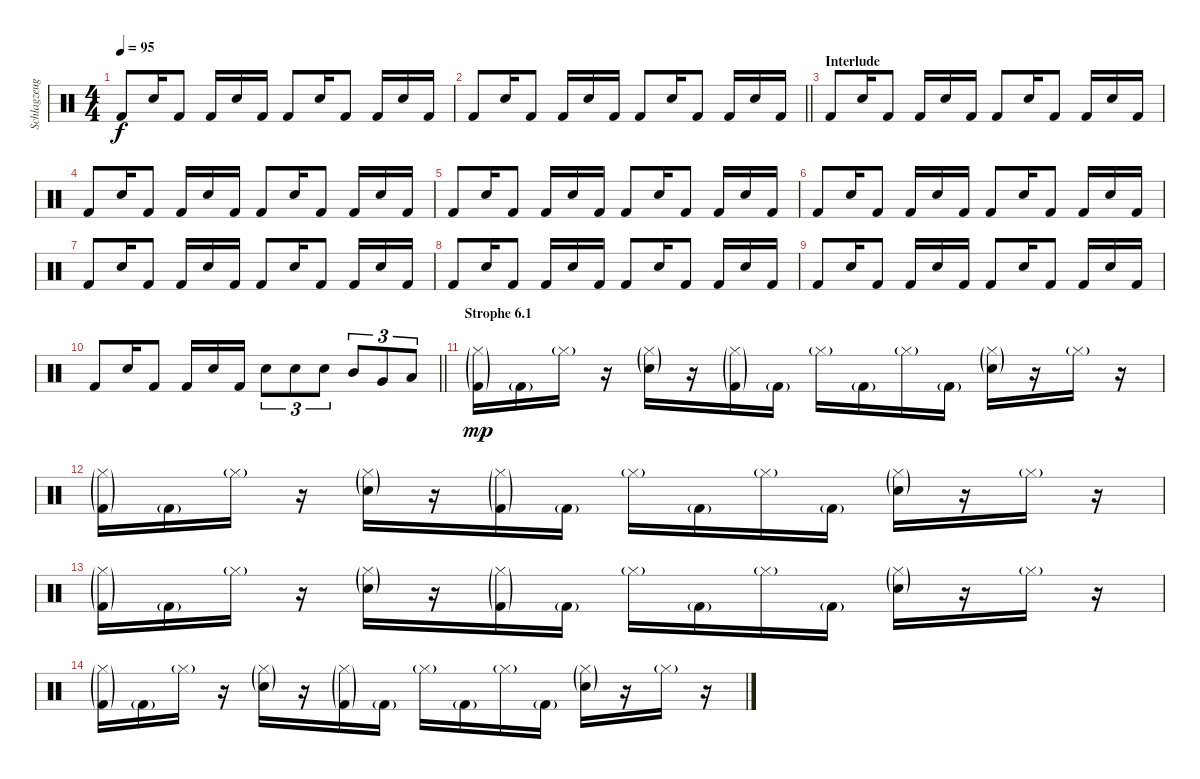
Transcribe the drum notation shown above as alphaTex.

\track ("Schlagzeug" "Schlagzeug") {instrument percussion}
\staff {score}
\articulation defaults
\ts (4 4)
\tempo 95
\clef neutral
\ks c "Kick (hit) 2".8{dy f} "Snare (hit) 2".16 "Kick (hit) 2".8 "Kick (hit) 2".16 "Snare (hit) 2".16 "Kick (hit) 2".16 "Kick (hit) 2".8 "Snare (hit) 2".16 "Kick (hit) 2".8 "Kick (hit) 2".16 "Snare (hit) 2".16 "Kick (hit) 2".16
|
\barLineRight lightlight "Kick (hit) 2".8 "Snare (hit) 2".16 "Kick (hit) 2".8 "Kick (hit) 2".16 "Snare (hit) 2".16 "Kick (hit) 2".16 "Kick (hit) 2".8 "Snare (hit) 2".16 "Kick (hit) 2".8 "Kick (hit) 2".16 "Snare (hit) 2".16 "Kick (hit) 2".16
|
\section ("" "Interlude")
"Kick (hit) 2".8 "Snare (hit) 2".16 "Kick (hit) 2".8 "Kick (hit) 2".16 "Snare (hit) 2".16 "Kick (hit) 2".16 "Kick (hit) 2".8 "Snare (hit) 2".16 "Kick (hit) 2".8 "Kick (hit) 2".16 "Snare (hit) 2".16 "Kick (hit) 2".16 |
"Kick (hit) 2".8 "Snare (hit) 2".16 "Kick (hit) 2".8 "Kick (hit) 2".16 "Snare (hit) 2".16 "Kick (hit) 2".16 "Kick (hit) 2".8 "Snare (hit) 2".16 "Kick (hit) 2".8 "Kick (hit) 2".16 "Snare (hit) 2".16 "Kick (hit) 2".16 |
"Kick (hit) 2".8 "Snare (hit) 2".16 "Kick (hit) 2".8 "Kick (hit) 2".16 "Snare (hit) 2".16 "Kick (hit) 2".16 "Kick (hit) 2".8 "Snare (hit) 2".16 "Kick (hit) 2".8 "Kick (hit) 2".16 "Snare (hit) 2".16 "Kick (hit) 2".16 |
"Kick (hit) 2".8 "Snare (hit) 2".16 "Kick (hit) 2".8 "Kick (hit) 2".16 "Snare (hit) 2".16 "Kick (hit) 2".16 "Kick (hit) 2".8 "Snare (hit) 2".16 "Kick (hit) 2".8 "Kick (hit) 2".16 "Snare (hit) 2".16 "Kick (hit) 2".16 |
"Kick (hit) 2".8 "Snare (hit) 2".16 "Kick (hit) 2".8 "Kick (hit) 2".16 "Snare (hit) 2".16 "Kick (hit) 2".16 "Kick (hit) 2".8 "Snare (hit) 2".16 "Kick (hit) 2".8 "Kick (hit) 2".16 "Snare (hit) 2".16 "Kick (hit) 2".16 |
"Kick (hit) 2".8 "Snare (hit) 2".16 "Kick (hit) 2".8 "Kick (hit) 2".16 "Snare (hit) 2".16 "Kick (hit) 2".16 "Kick (hit) 2".8 "Snare (hit) 2".16 "Kick (hit) 2".8 "Kick (hit) 2".16 "Snare (hit) 2".16 "Kick (hit) 2".16 |
"Kick (hit) 2".8 "Snare (hit) 2".16 "Kick (hit) 2".8 "Kick (hit) 2".16 "Snare (hit) 2".16 "Kick (hit) 2".16 "Kick (hit) 2".8 "Snare (hit) 2".16 "Kick (hit) 2".8 "Kick (hit) 2".16 "Snare (hit) 2".16 "Kick (hit) 2".16 |
\barLineRight lightlight "Kick (hit) 2".8 "Snare (hit) 2".16 "Kick (hit) 2".8 "Kick (hit) 2".16 "Snare (hit) 2".16 "Kick (hit) 2".16 "Snare (hit) 2".8{tu (3 2)} "Snare (hit) 2".8{tu (3 2)} "Snare (hit) 2".8{tu (3 2)} "Mid Tom (hit)".8{tu (3 2)} "Very Low Tom (hit)".8{tu (3 2)} "Low Floor Tom (hit)".8{tu (3 2)}
|
\section ("" "Strophe 6.1")
("Hi-Hat (closed)"{g} "Kick (hit) 2"{g}).16{dy mp} "Kick (hit) 2"{g}.16 "Hi-Hat (closed)"{g}.16 r.16 ("Hi-Hat (closed)"{g} "Snare (hit) 2"{g}).16 r.16 ("Hi-Hat (closed)"{g} "Kick (hit) 2"{g}).16 "Kick (hit) 2"{g}.16 "Hi-Hat (closed)"{g}.16 "Kick (hit) 2"{g}.16 "Hi-Hat (closed)"{g}.16 "Kick (hit) 2"{g}.16 ("Hi-Hat (closed)"{g} "Snare (hit) 2"{g}).16 r.16 "Hi-Hat (closed)"{g}.16 r.16 |
("Hi-Hat (closed)"{g} "Kick (hit) 2"{g}).16 "Kick (hit) 2"{g}.16 "Hi-Hat (closed)"{g}.16 r.16 ("Hi-Hat (closed)"{g} "Snare (hit) 2"{g}).16 r.16 ("Hi-Hat (closed)"{g} "Kick (hit) 2"{g}).16 "Kick (hit) 2"{g}.16 "Hi-Hat (closed)"{g}.16 "Kick (hit) 2"{g}.16 "Hi-Hat (closed)"{g}.16 "Kick (hit) 2"{g}.16 ("Hi-Hat (closed)"{g} "Snare (hit) 2"{g}).16 r.16 "Hi-Hat (closed)"{g}.16 r.16 |
("Hi-Hat (closed)"{g} "Kick (hit) 2"{g}).16 "Kick (hit) 2"{g}.16 "Hi-Hat (closed)"{g}.16 r.16 ("Hi-Hat (closed)"{g} "Snare (hit) 2"{g}).16 r.16 ("Hi-Hat (closed)"{g} "Kick (hit) 2"{g}).16 "Kick (hit) 2"{g}.16 "Hi-Hat (closed)"{g}.16 "Kick (hit) 2"{g}.16 "Hi-Hat (closed)"{g}.16 "Kick (hit) 2"{g}.16 ("Hi-Hat (closed)"{g} "Snare (hit) 2"{g}).16 r.16 "Hi-Hat (closed)"{g}.16 r.16 |
("Hi-Hat (closed)"{g} "Kick (hit) 2"{g}).16 "Kick (hit) 2"{g}.16 "Hi-Hat (closed)"{g}.16 r.16 ("Hi-Hat (closed)"{g} "Snare (hit) 2"{g}).16 r.16 ("Hi-Hat (closed)"{g} "Kick (hit) 2"{g}).16 "Kick (hit) 2"{g}.16 "Hi-Hat (closed)"{g}.16 "Kick (hit) 2"{g}.16 "Hi-Hat (closed)"{g}.16 "Kick (hit) 2"{g}.16 ("Hi-Hat (closed)"{g} "Snare (hit) 2"{g}).16 r.16 "Hi-Hat (closed)"{g}.16 r.16
